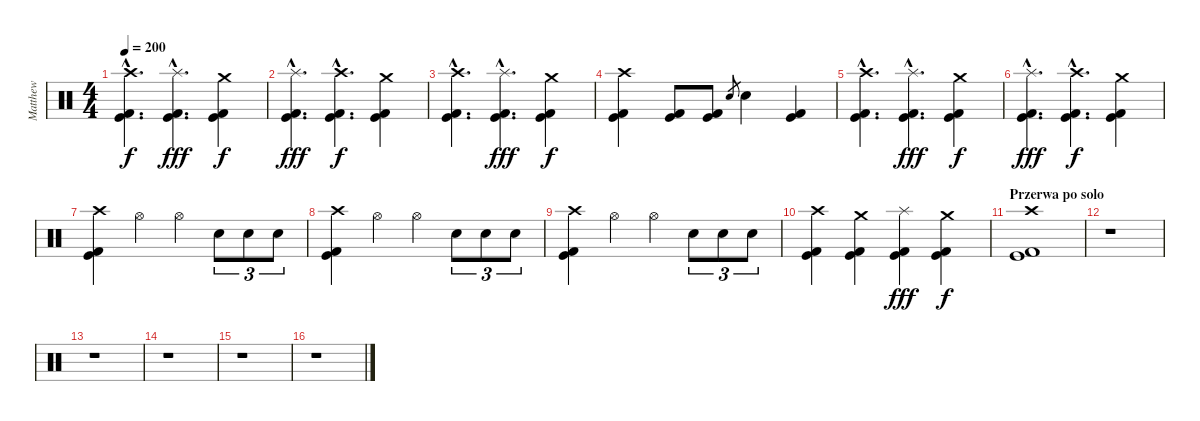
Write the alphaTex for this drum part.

\track ("Matthew" "Matthew") {instrument percussion}
\staff {score}
\articulation defaults
\ts (4 4)
\tempo 200
\clef neutral
\ks c
("Kick (hit) 2"{hac} "Kick (hit)"{hac} "Crash high (hit)"{hac}).4{d dy f} ("Kick (hit)"{hac} "Kick (hit) 2"{hac} "Splash (hit)"{hac}).4{d dy fff} ("Kick (hit) 2" "Kick (hit)" "Crash medium (hit)").4{dy f} |
("Kick (hit) 2"{hac} "Kick (hit)"{hac} "Splash (hit)"{hac}).4{d dy fff} ("Kick (hit)"{hac} "Kick (hit) 2"{hac} "Crash high (hit)"{hac}).4{d dy f} ("Kick (hit) 2" "Kick (hit)" "Crash medium (hit)").4 |
("Kick (hit) 2"{hac} "Kick (hit)"{hac} "Crash high (hit)"{hac}).4{d} ("Kick (hit)"{hac} "Kick (hit) 2"{hac} "Splash (hit)"{hac}).4{d dy fff} ("Kick (hit) 2" "Kick (hit)" "Crash medium (hit)").4{dy f} |
("Kick (hit) 2" "Kick (hit)" "Crash high (hit)").4 ("Kick (hit) 2" "Kick (hit)").8 ("Kick (hit)" "Kick (hit) 2").8 "Snare (hit) 2".8{gr} "Snare (hit) 2".4 ("Kick (hit) 2" "Kick (hit)").4 |
("Kick (hit) 2"{hac} "Kick (hit)"{hac} "Crash high (hit)"{hac}).4{d} ("Kick (hit)"{hac} "Kick (hit) 2"{hac} "Splash (hit)"{hac}).4{d dy fff} ("Kick (hit) 2" "Kick (hit)" "Crash medium (hit)").4{dy f} |
("Kick (hit) 2"{hac} "Kick (hit)"{hac} "Splash (hit)"{hac}).4{d dy fff} ("Kick (hit)"{hac} "Kick (hit) 2"{hac} "Crash high (hit)"{hac}).4{d dy f} ("Kick (hit) 2" "Kick (hit)" "Crash medium (hit)").4 |
("Kick (hit) 2" "Kick (hit)" "Crash high (hit)").4 "Hi-Hat (open)".4 "Hi-Hat (open)".4 "Snare (hit) 2".8{tu (3 2)} "Snare (hit) 2".8{tu (3 2)} "Snare (hit) 2".8{tu (3 2)} |
("Kick (hit) 2" "Kick (hit)" "Crash high (hit)").4 "Hi-Hat (open)".4 "Hi-Hat (open)".4 "Snare (hit) 2".8{tu (3 2)} "Snare (hit) 2".8{tu (3 2)} "Snare (hit) 2".8{tu (3 2)} |
("Kick (hit) 2" "Kick (hit)" "Crash high (hit)").4 "Hi-Hat (open)".4 "Hi-Hat (open)".4 "Snare (hit) 2".8{tu (3 2)} "Snare (hit) 2".8{tu (3 2)} "Snare (hit) 2".8{tu (3 2)} |
("Kick (hit) 2" "Kick (hit)" "Crash high (hit)").4 ("Kick (hit) 2" "Kick (hit)" "Crash medium (hit)").4 ("Kick (hit) 2" "Kick (hit)" "Splash (hit)").4{dy fff} ("Kick (hit) 2" "Kick (hit)" "Crash medium (hit)").4{dy f} |
\section ("" "Przerwa po solo")
("Kick (hit) 2" "Kick (hit)" "Crash high (hit)").1 |
r.1 |
r.1 |
r.1 |
r.1 |
r.1
